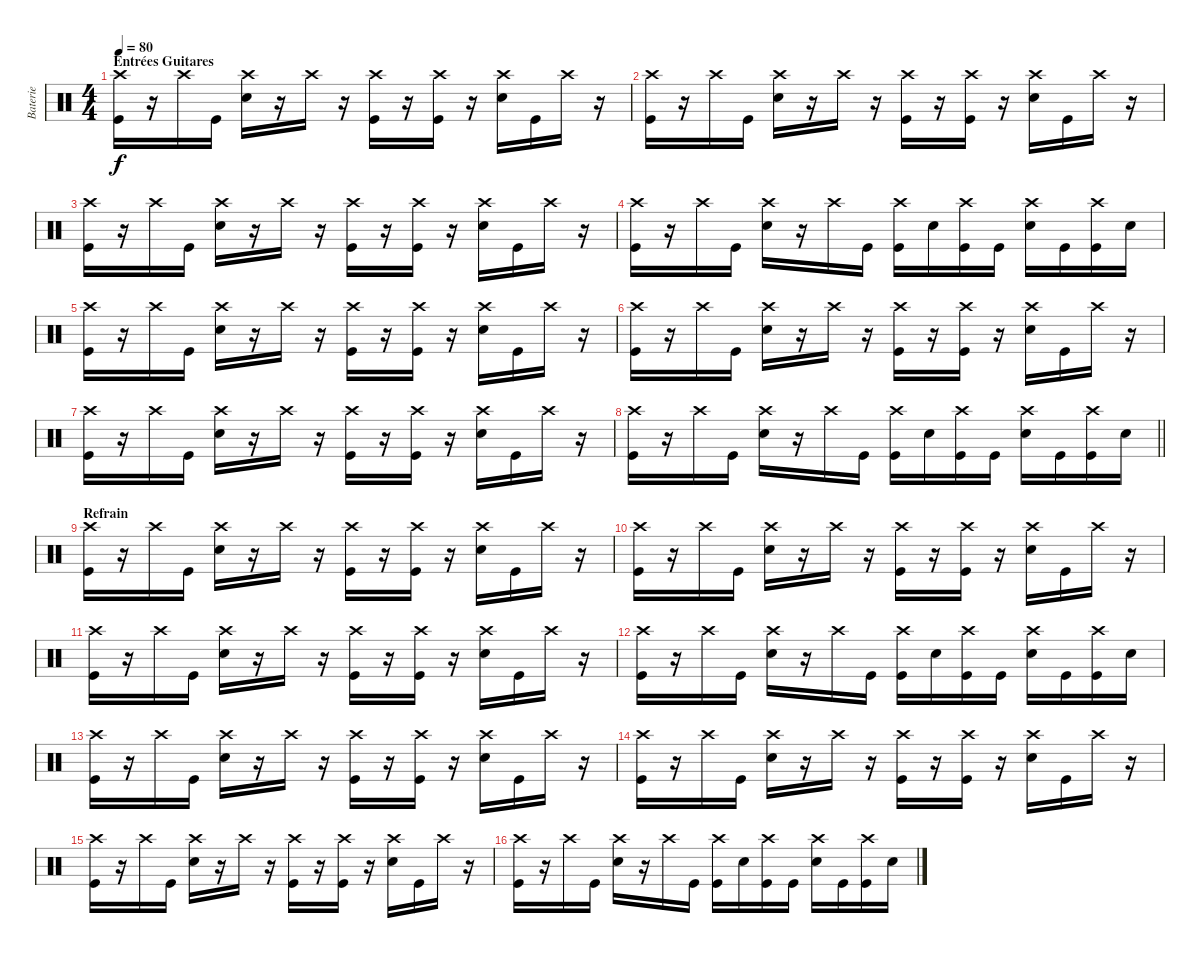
\track ("Baterie" "Baterie") {instrument percussion}
\staff {score}
\articulation defaults
\ts (4 4)
\section ("" "Entrées Guitares")
\tempo 80
\clef neutral
\ks c
("Crash high (hit)" "Kick (hit)").16{dy f} r.16 "Crash high (hit)".16 "Kick (hit)".16 ("Crash high (hit)" "Electric Snare (hit)").16 r.16 "Crash high (hit)".16 r.16 ("Crash high (hit)" "Kick (hit)").16 r.16 ("Crash high (hit)" "Kick (hit)").16 r.16 ("Crash high (hit)" "Electric Snare (hit)").16 "Kick (hit)".16 "Crash high (hit)".16 r.16 |
("Crash high (hit)" "Kick (hit)").16 r.16 "Crash high (hit)".16 "Kick (hit)".16 ("Crash high (hit)" "Electric Snare (hit)").16 r.16 "Crash high (hit)".16 r.16 ("Crash high (hit)" "Kick (hit)").16 r.16 ("Crash high (hit)" "Kick (hit)").16 r.16 ("Crash high (hit)" "Electric Snare (hit)").16 "Kick (hit)".16 "Crash high (hit)".16 r.16 |
("Crash high (hit)" "Kick (hit)").16 r.16 "Crash high (hit)".16 "Kick (hit)".16 ("Crash high (hit)" "Electric Snare (hit)").16 r.16 "Crash high (hit)".16 r.16 ("Crash high (hit)" "Kick (hit)").16 r.16 ("Crash high (hit)" "Kick (hit)").16 r.16 ("Crash high (hit)" "Electric Snare (hit)").16 "Kick (hit)".16 "Crash high (hit)".16 r.16 |
("Crash high (hit)" "Kick (hit)").16 r.16 "Crash high (hit)".16 "Kick (hit)".16 ("Crash high (hit)" "Electric Snare (hit)").16 r.16 "Crash high (hit)".16 "Kick (hit)".16 ("Crash high (hit)" "Kick (hit)").16 "Electric Snare (hit)".16 ("Crash high (hit)" "Kick (hit)").16 "Kick (hit)".16 ("Crash high (hit)" "Electric Snare (hit)").16 "Kick (hit)".16 ("Crash high (hit)" "Kick (hit)").16 "Electric Snare (hit)".16 |
("Crash high (hit)" "Kick (hit)").16 r.16 "Crash high (hit)".16 "Kick (hit)".16 ("Crash high (hit)" "Electric Snare (hit)").16 r.16 "Crash high (hit)".16 r.16 ("Crash high (hit)" "Kick (hit)").16 r.16 ("Crash high (hit)" "Kick (hit)").16 r.16 ("Crash high (hit)" "Electric Snare (hit)").16 "Kick (hit)".16 "Crash high (hit)".16 r.16 |
("Crash high (hit)" "Kick (hit)").16 r.16 "Crash high (hit)".16 "Kick (hit)".16 ("Crash high (hit)" "Electric Snare (hit)").16 r.16 "Crash high (hit)".16 r.16 ("Crash high (hit)" "Kick (hit)").16 r.16 ("Crash high (hit)" "Kick (hit)").16 r.16 ("Crash high (hit)" "Electric Snare (hit)").16 "Kick (hit)".16 "Crash high (hit)".16 r.16 |
("Crash high (hit)" "Kick (hit)").16 r.16 "Crash high (hit)".16 "Kick (hit)".16 ("Crash high (hit)" "Electric Snare (hit)").16 r.16 "Crash high (hit)".16 r.16 ("Crash high (hit)" "Kick (hit)").16 r.16 ("Crash high (hit)" "Kick (hit)").16 r.16 ("Crash high (hit)" "Electric Snare (hit)").16 "Kick (hit)".16 "Crash high (hit)".16 r.16 |
\barLineRight lightlight
("Crash high (hit)" "Kick (hit)").16 r.16 "Crash high (hit)".16 "Kick (hit)".16 ("Crash high (hit)" "Electric Snare (hit)").16 r.16 "Crash high (hit)".16 "Kick (hit)".16 ("Crash high (hit)" "Kick (hit)").16 "Electric Snare (hit)".16 ("Crash high (hit)" "Kick (hit)").16 "Kick (hit)".16 ("Crash high (hit)" "Electric Snare (hit)").16 "Kick (hit)".16 ("Crash high (hit)" "Kick (hit)").16 "Electric Snare (hit)".16 |
\section ("" "Refrain")
("Crash high (hit)" "Kick (hit)").16 r.16 "Crash high (hit)".16 "Kick (hit)".16 ("Crash high (hit)" "Electric Snare (hit)").16 r.16 "Crash high (hit)".16 r.16 ("Crash high (hit)" "Kick (hit)").16 r.16 ("Crash high (hit)" "Kick (hit)").16 r.16 ("Crash high (hit)" "Electric Snare (hit)").16 "Kick (hit)".16 "Crash high (hit)".16 r.16 |
("Crash high (hit)" "Kick (hit)").16 r.16 "Crash high (hit)".16 "Kick (hit)".16 ("Crash high (hit)" "Electric Snare (hit)").16 r.16 "Crash high (hit)".16 r.16 ("Crash high (hit)" "Kick (hit)").16 r.16 ("Crash high (hit)" "Kick (hit)").16 r.16 ("Crash high (hit)" "Electric Snare (hit)").16 "Kick (hit)".16 "Crash high (hit)".16 r.16 |
("Crash high (hit)" "Kick (hit)").16 r.16 "Crash high (hit)".16 "Kick (hit)".16 ("Crash high (hit)" "Electric Snare (hit)").16 r.16 "Crash high (hit)".16 r.16 ("Crash high (hit)" "Kick (hit)").16 r.16 ("Crash high (hit)" "Kick (hit)").16 r.16 ("Crash high (hit)" "Electric Snare (hit)").16 "Kick (hit)".16 "Crash high (hit)".16 r.16 |
("Crash high (hit)" "Kick (hit)").16 r.16 "Crash high (hit)".16 "Kick (hit)".16 ("Crash high (hit)" "Electric Snare (hit)").16 r.16 "Crash high (hit)".16 "Kick (hit)".16 ("Crash high (hit)" "Kick (hit)").16 "Electric Snare (hit)".16 ("Crash high (hit)" "Kick (hit)").16 "Kick (hit)".16 ("Crash high (hit)" "Electric Snare (hit)").16 "Kick (hit)".16 ("Crash high (hit)" "Kick (hit)").16 "Electric Snare (hit)".16 |
("Crash high (hit)" "Kick (hit)").16 r.16 "Crash high (hit)".16 "Kick (hit)".16 ("Crash high (hit)" "Electric Snare (hit)").16 r.16 "Crash high (hit)".16 r.16 ("Crash high (hit)" "Kick (hit)").16 r.16 ("Crash high (hit)" "Kick (hit)").16 r.16 ("Crash high (hit)" "Electric Snare (hit)").16 "Kick (hit)".16 "Crash high (hit)".16 r.16 |
("Crash high (hit)" "Kick (hit)").16 r.16 "Crash high (hit)".16 "Kick (hit)".16 ("Crash high (hit)" "Electric Snare (hit)").16 r.16 "Crash high (hit)".16 r.16 ("Crash high (hit)" "Kick (hit)").16 r.16 ("Crash high (hit)" "Kick (hit)").16 r.16 ("Crash high (hit)" "Electric Snare (hit)").16 "Kick (hit)".16 "Crash high (hit)".16 r.16 |
("Crash high (hit)" "Kick (hit)").16 r.16 "Crash high (hit)".16 "Kick (hit)".16 ("Crash high (hit)" "Electric Snare (hit)").16 r.16 "Crash high (hit)".16 r.16 ("Crash high (hit)" "Kick (hit)").16 r.16 ("Crash high (hit)" "Kick (hit)").16 r.16 ("Crash high (hit)" "Electric Snare (hit)").16 "Kick (hit)".16 "Crash high (hit)".16 r.16 |
("Crash high (hit)" "Kick (hit)").16 r.16 "Crash high (hit)".16 "Kick (hit)".16 ("Crash high (hit)" "Electric Snare (hit)").16 r.16 "Crash high (hit)".16 "Kick (hit)".16 ("Crash high (hit)" "Kick (hit)").16 "Electric Snare (hit)".16 ("Crash high (hit)" "Kick (hit)").16 "Kick (hit)".16 ("Crash high (hit)" "Electric Snare (hit)").16 "Kick (hit)".16 ("Crash high (hit)" "Kick (hit)").16 "Electric Snare (hit)".16
